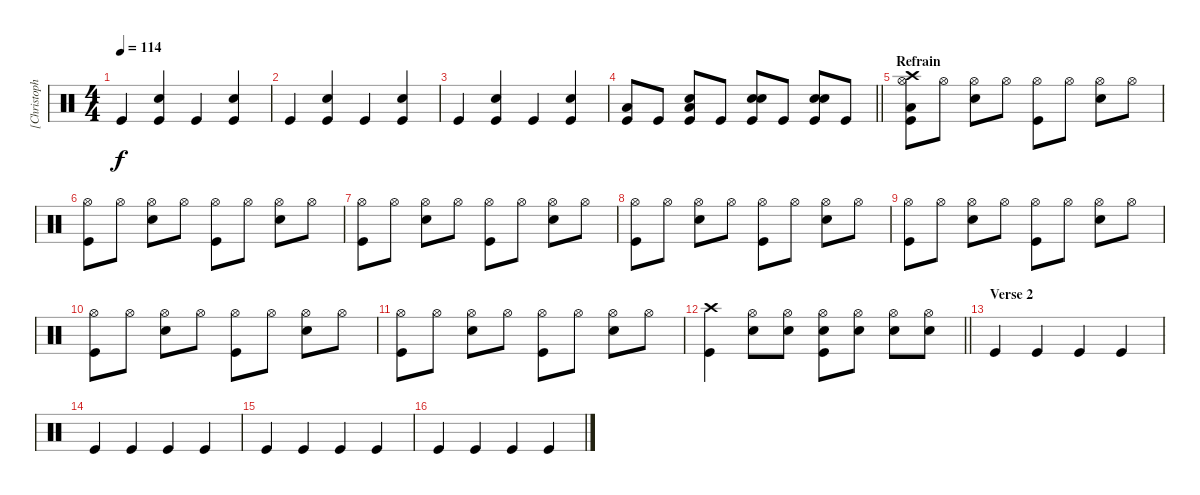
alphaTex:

\track ("[Christoph Schneider] ;Drums" "[Christoph") {solo instrument percussion}
\staff {score}
\articulation defaults
\ts (4 4)
\tempo 114
\clef neutral
\ks c "Kick (hit)".4{dy f}
("Kick (hit)" "Snare (hit) 2").4 "Kick (hit)".4 ("Kick (hit)" "Snare (hit) 2").4 |
"Kick (hit)".4 ("Kick (hit)" "Snare (hit) 2").4 "Kick (hit)".4 ("Kick (hit)" "Snare (hit) 2").4 |
"Kick (hit)".4 ("Kick (hit)" "Snare (hit) 2").4 "Kick (hit)".4 ("Kick (hit)" "Snare (hit) 2").4 |
\barLineRight lightlight
("Kick (hit)" "Low Floor Tom (hit)").8 "Kick (hit)".8 ("Kick (hit)" "Low Floor Tom (hit)" "Snare (hit) 2").8 "Kick (hit)".8 ("Kick (hit)" "Snare (hit) 2" "Snare (hit) 2").8 "Kick (hit)".8 ("Kick (hit)" "Snare (hit) 2" "Snare (hit) 2").8 "Kick (hit)".8 |
\section ("" "Refrain")
("Kick (hit)" "Crash high (hit)" "Hi-Hat (open)" "Low Floor Tom (hit)").8 "Hi-Hat (open)".8 ("Hi-Hat (open)" "Snare (hit) 2").8 "Hi-Hat (open)".8 ("Kick (hit)" "Hi-Hat (open)").8 "Hi-Hat (open)".8 ("Hi-Hat (open)" "Snare (hit) 2").8 "Hi-Hat (open)".8 |
("Kick (hit)" "Hi-Hat (open)").8 "Hi-Hat (open)".8 ("Hi-Hat (open)" "Snare (hit) 2").8 "Hi-Hat (open)".8 ("Kick (hit)" "Hi-Hat (open)").8 "Hi-Hat (open)".8 ("Hi-Hat (open)" "Snare (hit) 2").8 "Hi-Hat (open)".8 |
("Kick (hit)" "Hi-Hat (open)").8 "Hi-Hat (open)".8 ("Hi-Hat (open)" "Snare (hit) 2").8 "Hi-Hat (open)".8 ("Kick (hit)" "Hi-Hat (open)").8 "Hi-Hat (open)".8 ("Hi-Hat (open)" "Snare (hit) 2").8 "Hi-Hat (open)".8 |
("Kick (hit)" "Hi-Hat (open)").8 "Hi-Hat (open)".8 ("Hi-Hat (open)" "Snare (hit) 2").8 "Hi-Hat (open)".8 ("Kick (hit)" "Hi-Hat (open)").8 "Hi-Hat (open)".8 ("Hi-Hat (open)" "Snare (hit) 2").8 "Hi-Hat (open)".8 |
("Kick (hit)" "Hi-Hat (open)").8 "Hi-Hat (open)".8 ("Hi-Hat (open)" "Snare (hit) 2").8 "Hi-Hat (open)".8 ("Kick (hit)" "Hi-Hat (open)").8 "Hi-Hat (open)".8 ("Hi-Hat (open)" "Snare (hit) 2").8 "Hi-Hat (open)".8 |
("Kick (hit)" "Hi-Hat (open)").8 "Hi-Hat (open)".8 ("Hi-Hat (open)" "Snare (hit) 2").8 "Hi-Hat (open)".8 ("Kick (hit)" "Hi-Hat (open)").8 "Hi-Hat (open)".8 ("Hi-Hat (open)" "Snare (hit) 2").8 "Hi-Hat (open)".8 |
("Kick (hit)" "Hi-Hat (open)").8 "Hi-Hat (open)".8 ("Hi-Hat (open)" "Snare (hit) 2").8 "Hi-Hat (open)".8 ("Kick (hit)" "Hi-Hat (open)").8 "Hi-Hat (open)".8 ("Hi-Hat (open)" "Snare (hit) 2").8 "Hi-Hat (open)".8 |
\barLineRight lightlight
("Kick (hit)" "Crash high (hit)").4 ("Snare (hit) 2" "Hi-Hat (open)").8 ("Snare (hit) 2" "Hi-Hat (open)").8 ("Kick (hit)" "Snare (hit) 2" "Hi-Hat (open)").8 ("Snare (hit) 2" "Hi-Hat (open)").8 ("Snare (hit) 2" "Hi-Hat (open)").8 ("Snare (hit) 2" "Hi-Hat (open)").8 |
\section ("" "Verse 2")
"Kick (hit)".4 "Kick (hit)".4 "Kick (hit)".4 "Kick (hit)".4 |
"Kick (hit)".4 "Kick (hit)".4 "Kick (hit)".4 "Kick (hit)".4 |
"Kick (hit)".4 "Kick (hit)".4 "Kick (hit)".4 "Kick (hit)".4 |
"Kick (hit)".4 "Kick (hit)".4 "Kick (hit)".4 "Kick (hit)".4
